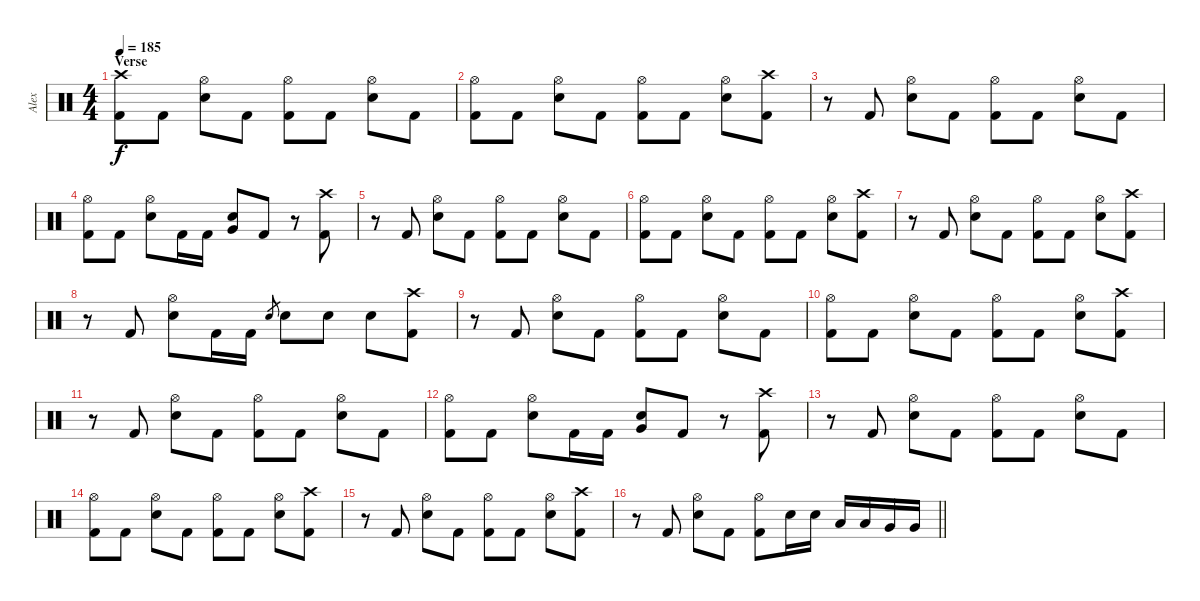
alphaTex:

\track ("Alex" "Alex") {instrument percussion}
\staff {score}
\articulation defaults
\ts (4 4)
\section ("" "Verse")
\tempo 185
\clef neutral
\ks c
("Crash high (hit)" "Kick (hit) 2").8{dy f} "Kick (hit) 2".8 ("Hi-Hat (open)" "Electric Snare (hit)").8 "Kick (hit) 2".8 ("Hi-Hat (open)" "Kick (hit) 2").8 "Kick (hit) 2".8 ("Hi-Hat (open)" "Electric Snare (hit)").8 "Kick (hit) 2".8 |
("Hi-Hat (open)" "Kick (hit) 2").8 "Kick (hit) 2".8 ("Hi-Hat (open)" "Electric Snare (hit)").8 "Kick (hit) 2".8 ("Hi-Hat (open)" "Kick (hit) 2").8 "Kick (hit) 2".8 ("Hi-Hat (open)" "Electric Snare (hit)").8 ("Crash high (hit)" "Kick (hit) 2").8 |
r.8 "Kick (hit) 2".8 ("Hi-Hat (open)" "Electric Snare (hit)").8 "Kick (hit) 2".8 ("Hi-Hat (open)" "Kick (hit) 2").8 "Kick (hit) 2".8 ("Hi-Hat (open)" "Electric Snare (hit)").8 "Kick (hit) 2".8 |
("Hi-Hat (open)" "Kick (hit) 2").8 "Kick (hit) 2".8 ("Hi-Hat (open)" "Electric Snare (hit)").8 "Kick (hit) 2".16 "Kick (hit) 2".16 ("Very Low Tom (hit)" "Electric Snare (hit)").8 "Kick (hit) 2".8 r.8 ("Crash high (hit)" "Kick (hit) 2").8 |
r.8 "Kick (hit) 2".8 ("Hi-Hat (open)" "Electric Snare (hit)").8 "Kick (hit) 2".8 ("Hi-Hat (open)" "Kick (hit) 2").8 "Kick (hit) 2".8 ("Hi-Hat (open)" "Electric Snare (hit)").8 "Kick (hit) 2".8 |
("Hi-Hat (open)" "Kick (hit) 2").8 "Kick (hit) 2".8 ("Hi-Hat (open)" "Electric Snare (hit)").8 "Kick (hit) 2".8 ("Hi-Hat (open)" "Kick (hit) 2").8 "Kick (hit) 2".8 ("Hi-Hat (open)" "Electric Snare (hit)").8 ("Crash high (hit)" "Kick (hit) 2").8 |
r.8 "Kick (hit) 2".8 ("Hi-Hat (open)" "Electric Snare (hit)").8 "Kick (hit) 2".8 ("Hi-Hat (open)" "Kick (hit) 2").8 "Kick (hit) 2".8 ("Hi-Hat (open)" "Electric Snare (hit)").8 ("Crash high (hit)" "Kick (hit) 2").8 |
r.8 "Kick (hit) 2".8 ("Hi-Hat (open)" "Electric Snare (hit)").8 "Kick (hit) 2".16 "Kick (hit) 2".16 "Electric Snare (hit)".8{gr} "Electric Snare (hit)".8 "Electric Snare (hit)".8 "Electric Snare (hit)".8 ("Crash high (hit)" "Kick (hit) 2").8 |
r.8 "Kick (hit) 2".8 ("Hi-Hat (open)" "Electric Snare (hit)").8 "Kick (hit) 2".8 ("Hi-Hat (open)" "Kick (hit) 2").8 "Kick (hit) 2".8 ("Hi-Hat (open)" "Electric Snare (hit)").8 "Kick (hit) 2".8 |
("Hi-Hat (open)" "Kick (hit) 2").8 "Kick (hit) 2".8 ("Hi-Hat (open)" "Electric Snare (hit)").8 "Kick (hit) 2".8 ("Hi-Hat (open)" "Kick (hit) 2").8 "Kick (hit) 2".8 ("Hi-Hat (open)" "Electric Snare (hit)").8 ("Crash high (hit)" "Kick (hit) 2").8 |
r.8 "Kick (hit) 2".8 ("Hi-Hat (open)" "Electric Snare (hit)").8 "Kick (hit) 2".8 ("Hi-Hat (open)" "Kick (hit) 2").8 "Kick (hit) 2".8 ("Hi-Hat (open)" "Electric Snare (hit)").8 "Kick (hit) 2".8 |
("Hi-Hat (open)" "Kick (hit) 2").8 "Kick (hit) 2".8 ("Hi-Hat (open)" "Electric Snare (hit)").8 "Kick (hit) 2".16 "Kick (hit) 2".16 ("Very Low Tom (hit)" "Electric Snare (hit)").8 "Kick (hit) 2".8 r.8 ("Crash high (hit)" "Kick (hit) 2").8 |
r.8 "Kick (hit) 2".8 ("Hi-Hat (open)" "Electric Snare (hit)").8 "Kick (hit) 2".8 ("Hi-Hat (open)" "Kick (hit) 2").8 "Kick (hit) 2".8 ("Hi-Hat (open)" "Electric Snare (hit)").8 "Kick (hit) 2".8 |
("Hi-Hat (open)" "Kick (hit) 2").8 "Kick (hit) 2".8 ("Hi-Hat (open)" "Electric Snare (hit)").8 "Kick (hit) 2".8 ("Hi-Hat (open)" "Kick (hit) 2").8 "Kick (hit) 2".8 ("Hi-Hat (open)" "Electric Snare (hit)").8 ("Crash high (hit)" "Kick (hit) 2").8 |
r.8 "Kick (hit) 2".8 ("Hi-Hat (open)" "Electric Snare (hit)").8 "Kick (hit) 2".8 ("Hi-Hat (open)" "Kick (hit) 2").8 "Kick (hit) 2".8 ("Hi-Hat (open)" "Electric Snare (hit)").8 ("Crash high (hit)" "Kick (hit) 2").8 |
\barLineRight lightlight
r.8 "Kick (hit) 2".8 ("Hi-Hat (open)" "Electric Snare (hit)").8 "Kick (hit) 2".8 ("Hi-Hat (open)" "Kick (hit) 2").8 "Electric Snare (hit)".16 "Electric Snare (hit)".16 "Low Tom (hit)".16 "Low Tom (hit)".16 "Very Low Tom (hit)".16 "Very Low Tom (hit)".16
